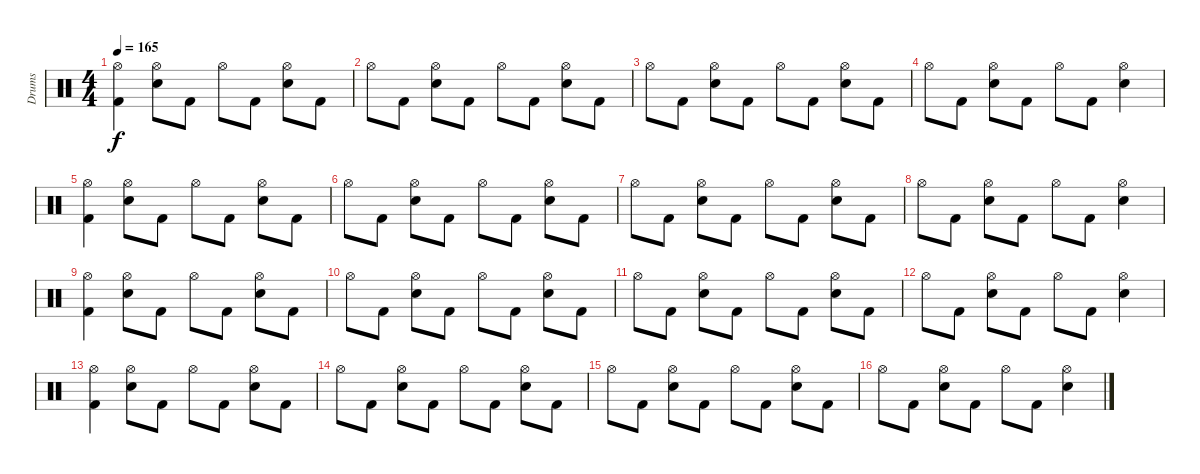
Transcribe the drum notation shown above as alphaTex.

\track ("Drums" "Drums") {instrument percussion}
\staff {score}
\articulation defaults
\ts (4 4)
\tempo 165
\clef neutral
\ks c
("Hi-Hat (open)" "Kick (hit) 2").4{dy f} ("Hi-Hat (open)" "Electric Snare (hit)").8 "Kick (hit) 2".8 "Hi-Hat (open)".8 "Kick (hit) 2".8 ("Hi-Hat (open)" "Electric Snare (hit)").8 "Kick (hit) 2".8 |
"Hi-Hat (open)".8 "Kick (hit) 2".8 ("Hi-Hat (open)" "Electric Snare (hit)").8 "Kick (hit) 2".8 "Hi-Hat (open)".8 "Kick (hit) 2".8 ("Hi-Hat (open)" "Electric Snare (hit)").8 "Kick (hit) 2".8 |
"Hi-Hat (open)".8 "Kick (hit) 2".8 ("Hi-Hat (open)" "Electric Snare (hit)").8 "Kick (hit) 2".8 "Hi-Hat (open)".8 "Kick (hit) 2".8 ("Hi-Hat (open)" "Electric Snare (hit)").8 "Kick (hit) 2".8 |
"Hi-Hat (open)".8 "Kick (hit) 2".8 ("Hi-Hat (open)" "Electric Snare (hit)").8 "Kick (hit) 2".8 "Hi-Hat (open)".8 "Kick (hit) 2".8 ("Hi-Hat (open)" "Electric Snare (hit)").4 |
("Hi-Hat (open)" "Kick (hit) 2").4 ("Hi-Hat (open)" "Electric Snare (hit)").8 "Kick (hit) 2".8 "Hi-Hat (open)".8 "Kick (hit) 2".8 ("Hi-Hat (open)" "Electric Snare (hit)").8 "Kick (hit) 2".8 |
"Hi-Hat (open)".8 "Kick (hit) 2".8 ("Hi-Hat (open)" "Electric Snare (hit)").8 "Kick (hit) 2".8 "Hi-Hat (open)".8 "Kick (hit) 2".8 ("Hi-Hat (open)" "Electric Snare (hit)").8 "Kick (hit) 2".8 |
"Hi-Hat (open)".8 "Kick (hit) 2".8 ("Hi-Hat (open)" "Electric Snare (hit)").8 "Kick (hit) 2".8 "Hi-Hat (open)".8 "Kick (hit) 2".8 ("Hi-Hat (open)" "Electric Snare (hit)").8 "Kick (hit) 2".8 |
"Hi-Hat (open)".8 "Kick (hit) 2".8 ("Hi-Hat (open)" "Electric Snare (hit)").8 "Kick (hit) 2".8 "Hi-Hat (open)".8 "Kick (hit) 2".8 ("Hi-Hat (open)" "Electric Snare (hit)").4 |
("Hi-Hat (open)" "Kick (hit) 2").4 ("Hi-Hat (open)" "Electric Snare (hit)").8 "Kick (hit) 2".8 "Hi-Hat (open)".8 "Kick (hit) 2".8 ("Hi-Hat (open)" "Electric Snare (hit)").8 "Kick (hit) 2".8 |
"Hi-Hat (open)".8 "Kick (hit) 2".8 ("Hi-Hat (open)" "Electric Snare (hit)").8 "Kick (hit) 2".8 "Hi-Hat (open)".8 "Kick (hit) 2".8 ("Hi-Hat (open)" "Electric Snare (hit)").8 "Kick (hit) 2".8 |
"Hi-Hat (open)".8 "Kick (hit) 2".8 ("Hi-Hat (open)" "Electric Snare (hit)").8 "Kick (hit) 2".8 "Hi-Hat (open)".8 "Kick (hit) 2".8 ("Hi-Hat (open)" "Electric Snare (hit)").8 "Kick (hit) 2".8 |
"Hi-Hat (open)".8 "Kick (hit) 2".8 ("Hi-Hat (open)" "Electric Snare (hit)").8 "Kick (hit) 2".8 "Hi-Hat (open)".8 "Kick (hit) 2".8 ("Hi-Hat (open)" "Electric Snare (hit)").4 |
("Hi-Hat (open)" "Kick (hit) 2").4 ("Hi-Hat (open)" "Electric Snare (hit)").8 "Kick (hit) 2".8 "Hi-Hat (open)".8 "Kick (hit) 2".8 ("Hi-Hat (open)" "Electric Snare (hit)").8 "Kick (hit) 2".8 |
"Hi-Hat (open)".8 "Kick (hit) 2".8 ("Hi-Hat (open)" "Electric Snare (hit)").8 "Kick (hit) 2".8 "Hi-Hat (open)".8 "Kick (hit) 2".8 ("Hi-Hat (open)" "Electric Snare (hit)").8 "Kick (hit) 2".8 |
"Hi-Hat (open)".8 "Kick (hit) 2".8 ("Hi-Hat (open)" "Electric Snare (hit)").8 "Kick (hit) 2".8 "Hi-Hat (open)".8 "Kick (hit) 2".8 ("Hi-Hat (open)" "Electric Snare (hit)").8 "Kick (hit) 2".8 |
"Hi-Hat (open)".8 "Kick (hit) 2".8 ("Hi-Hat (open)" "Electric Snare (hit)").8 "Kick (hit) 2".8 "Hi-Hat (open)".8 "Kick (hit) 2".8 ("Hi-Hat (open)" "Electric Snare (hit)").4
